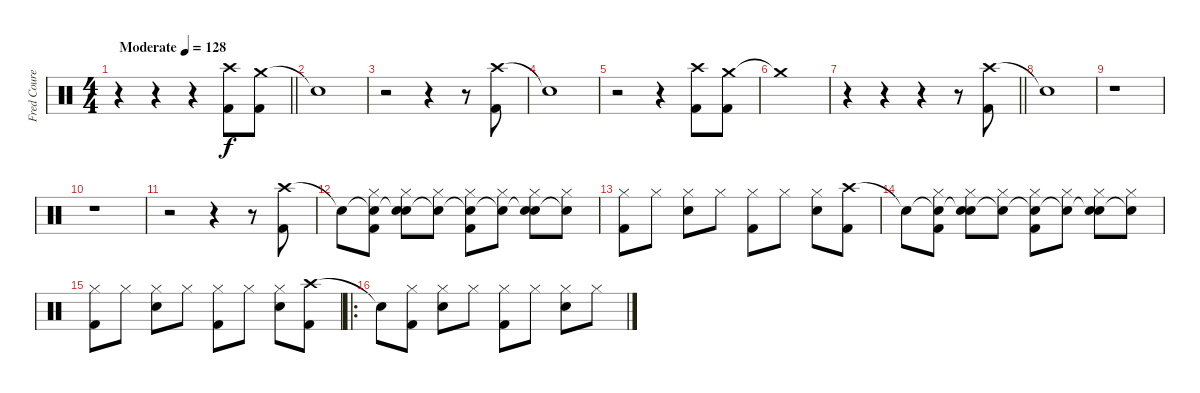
\track ("Fred Courey" "Fred Coure") {instrument percussion}
\staff {score}
\articulation defaults
\ts (4 4)
\tempo (128 "Moderate")
\clef neutral
\barLineRight lightlight
\ks c
r.4{dy f} r.4 r.4 ("Crash high (hit)" "Kick (hit) 2").8 ("Crash medium (hit)" "Kick (hit) 2").8 |
"Snare (hit)"{t}.1 |
r.2 r.4 r.8 ("Crash high (hit)" "Kick (hit) 2").8 |
"Snare (hit)"{t}.1 |
r.2 r.4 ("Crash high (hit)" "Kick (hit) 2").8 ("Crash medium (hit)" "Kick (hit) 2").8 |
"Crash medium (hit)"{t}.1 |
\barLineRight lightlight
r.4 r.4 r.4 r.8 ("Crash high (hit)" "Kick (hit) 2").8 |
"Snare (hit)"{t}.1 |
r.1 |
r.1 |
r.2 r.4 r.8 ("Crash high (hit)" "Kick (hit) 2").8 |
"Snare (hit)"{t}.8 ("Snare (hit)"{t} "Hi-Hat (closed)" "Kick (hit) 2").8 ("Snare (hit)"{t} "Hi-Hat (closed)" "Snare (hit) 2").8 ("Snare (hit)"{t} "Hi-Hat (closed)").8 ("Snare (hit)"{t} "Hi-Hat (closed)" "Kick (hit) 2").8 ("Snare (hit)"{t} "Hi-Hat (closed)").8 ("Snare (hit)"{t} "Hi-Hat (closed)" "Snare (hit) 2").8 ("Snare (hit)"{t} "Hi-Hat (closed)").8 |
("Hi-Hat (closed)" "Kick (hit) 2").8 "Hi-Hat (closed)".8 ("Hi-Hat (closed)" "Snare (hit) 2").8 "Hi-Hat (closed)".8 ("Hi-Hat (closed)" "Kick (hit) 2").8 "Hi-Hat (closed)".8 ("Hi-Hat (closed)" "Snare (hit) 2").8 ("Crash high (hit)" "Kick (hit) 2").8 |
"Snare (hit)"{t}.8 ("Snare (hit)"{t} "Hi-Hat (closed)" "Kick (hit) 2").8 ("Snare (hit)"{t} "Hi-Hat (closed)" "Snare (hit) 2").8 ("Snare (hit)"{t} "Hi-Hat (closed)").8 ("Snare (hit)"{t} "Hi-Hat (closed)" "Kick (hit) 2").8 ("Snare (hit)"{t} "Hi-Hat (closed)").8 ("Snare (hit)"{t} "Hi-Hat (closed)" "Snare (hit) 2").8 ("Snare (hit)"{t} "Hi-Hat (closed)").8 |
("Hi-Hat (closed)" "Kick (hit) 2").8 "Hi-Hat (closed)".8 ("Hi-Hat (closed)" "Snare (hit) 2").8 "Hi-Hat (closed)".8 ("Hi-Hat (closed)" "Kick (hit) 2").8 "Hi-Hat (closed)".8 ("Hi-Hat (closed)" "Snare (hit) 2").8 ("Crash high (hit)" "Kick (hit) 2").8 |
\ro "Snare (hit)"{t}.8
("Hi-Hat (closed)" "Kick (hit) 2").8 ("Hi-Hat (closed)" "Snare (hit) 2").8 "Hi-Hat (closed)".8 ("Hi-Hat (closed)" "Kick (hit) 2").8 "Hi-Hat (closed)".8 ("Hi-Hat (closed)" "Snare (hit) 2").8 "Hi-Hat (closed)".8
